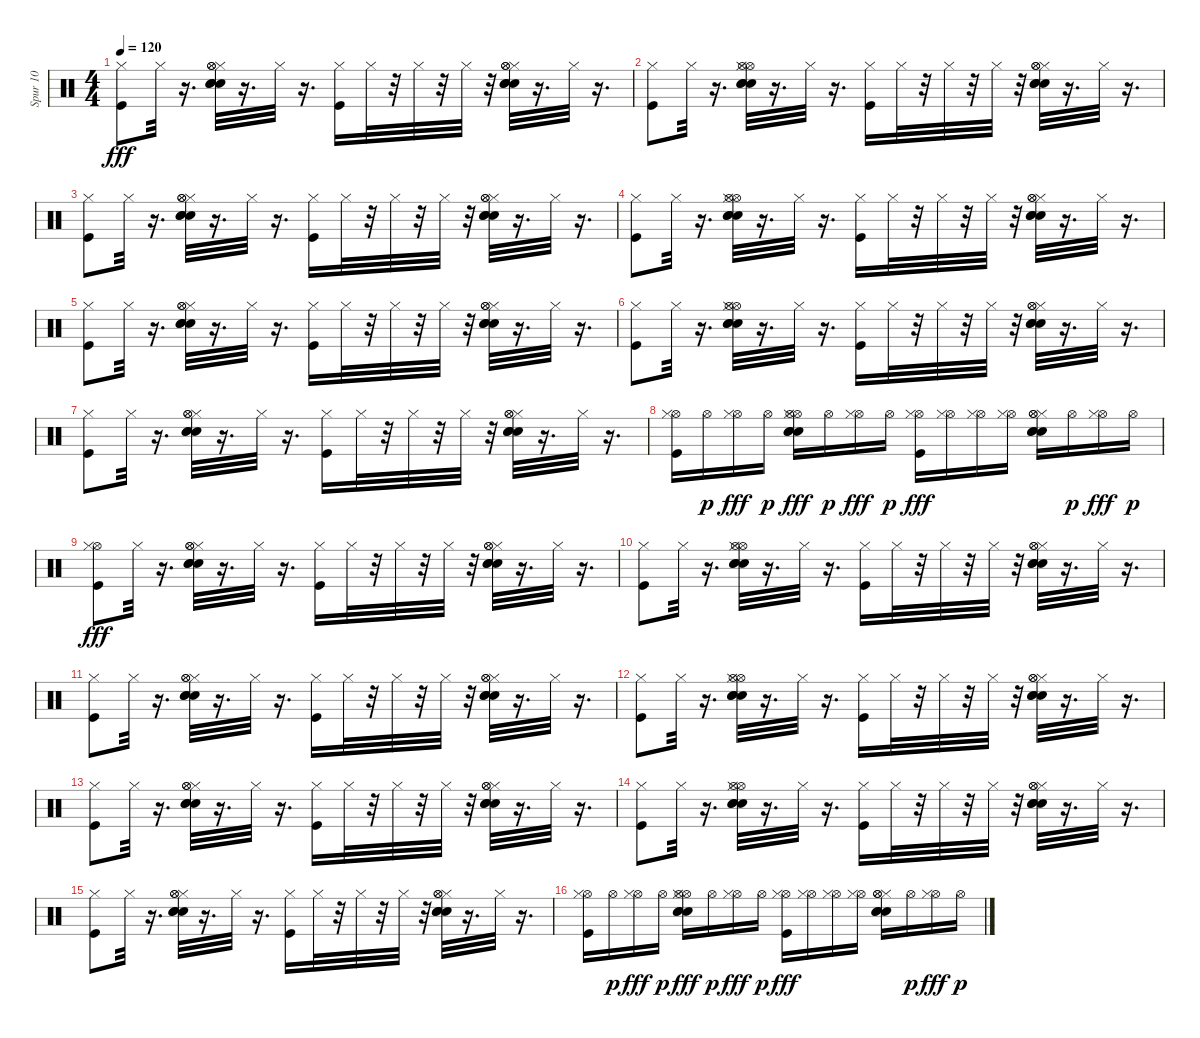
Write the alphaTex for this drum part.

\track ("Spur 10" "Spur 10") {instrument percussion}
\staff {score}
\articulation defaults
\ts (4 4)
\tempo 120
\clef neutral
\ks c
("Kick (hit)" "Hi-Hat (closed)").8{dy fff} "Hi-Hat (closed)".32 r.16{d} ("Snare (hit) 2" "Snare (hit) 2" "Hi-Hat (closed)" "Snare (hit) 2" "Hi-Hat (open)" "Hi-Hat (open)").32 r.16{d} "Hi-Hat (closed)".32 r.16{d} ("Hi-Hat (closed)" "Kick (hit)").16 "Hi-Hat (closed)".32 r.32 "Hi-Hat (closed)".32 r.32 "Hi-Hat (closed)".32 r.32 ("Hi-Hat (closed)" "Snare (hit) 2" "Hi-Hat (open)" "Hi-Hat (open)" "Snare (hit) 2" "Snare (hit) 2").32 r.16{d} "Hi-Hat (closed)".32 r.16{d} |
("Hi-Hat (closed)" "Kick (hit)").8 "Hi-Hat (closed)".32 r.16{d} ("Hi-Hat (open)" "Hi-Hat (closed)" "Snare (hit) 2" "Hi-Hat (open)" "Snare (hit) 2" "Snare (hit) 2").32 r.16{d} "Hi-Hat (closed)".32 r.16{d} ("Kick (hit)" "Hi-Hat (closed)").16 "Hi-Hat (closed)".32 r.32 "Hi-Hat (closed)".32 r.32 "Hi-Hat (closed)".32 r.32 ("Snare (hit) 2" "Hi-Hat (closed)" "Hi-Hat (open)" "Snare (hit) 2" "Hi-Hat (open)" "Snare (hit) 2").32 r.16{d} "Hi-Hat (closed)".32 r.16{d} |
("Kick (hit)" "Hi-Hat (closed)").8 "Hi-Hat (closed)".32 r.16{d} ("Snare (hit) 2" "Snare (hit) 2" "Hi-Hat (closed)" "Snare (hit) 2" "Hi-Hat (open)" "Hi-Hat (open)").32 r.16{d} "Hi-Hat (closed)".32 r.16{d} ("Hi-Hat (closed)" "Kick (hit)").16 "Hi-Hat (closed)".32 r.32 "Hi-Hat (closed)".32 r.32 "Hi-Hat (closed)".32 r.32 ("Hi-Hat (closed)" "Snare (hit) 2" "Hi-Hat (open)" "Hi-Hat (open)" "Snare (hit) 2" "Snare (hit) 2").32 r.16{d} "Hi-Hat (closed)".32 r.16{d} |
("Hi-Hat (closed)" "Kick (hit)").8 "Hi-Hat (closed)".32 r.16{d} ("Hi-Hat (open)" "Hi-Hat (closed)" "Snare (hit) 2" "Hi-Hat (open)" "Snare (hit) 2" "Snare (hit) 2").32 r.16{d} "Hi-Hat (closed)".32 r.16{d} ("Kick (hit)" "Hi-Hat (closed)").16 "Hi-Hat (closed)".32 r.32 "Hi-Hat (closed)".32 r.32 "Hi-Hat (closed)".32 r.32 ("Snare (hit) 2" "Hi-Hat (closed)" "Hi-Hat (open)" "Snare (hit) 2" "Hi-Hat (open)" "Snare (hit) 2").32 r.16{d} "Hi-Hat (closed)".32 r.16{d} |
("Kick (hit)" "Hi-Hat (closed)").8 "Hi-Hat (closed)".32 r.16{d} ("Snare (hit) 2" "Snare (hit) 2" "Hi-Hat (closed)" "Snare (hit) 2" "Hi-Hat (open)" "Hi-Hat (open)").32 r.16{d} "Hi-Hat (closed)".32 r.16{d} ("Hi-Hat (closed)" "Kick (hit)").16 "Hi-Hat (closed)".32 r.32 "Hi-Hat (closed)".32 r.32 "Hi-Hat (closed)".32 r.32 ("Hi-Hat (closed)" "Snare (hit) 2" "Hi-Hat (open)" "Hi-Hat (open)" "Snare (hit) 2" "Snare (hit) 2").32 r.16{d} "Hi-Hat (closed)".32 r.16{d} |
("Hi-Hat (closed)" "Kick (hit)").8 "Hi-Hat (closed)".32 r.16{d} ("Hi-Hat (open)" "Hi-Hat (closed)" "Snare (hit) 2" "Hi-Hat (open)" "Snare (hit) 2" "Snare (hit) 2").32 r.16{d} "Hi-Hat (closed)".32 r.16{d} ("Kick (hit)" "Hi-Hat (closed)").16 "Hi-Hat (closed)".32 r.32 "Hi-Hat (closed)".32 r.32 "Hi-Hat (closed)".32 r.32 ("Snare (hit) 2" "Hi-Hat (closed)" "Hi-Hat (open)" "Snare (hit) 2" "Hi-Hat (open)" "Snare (hit) 2").32 r.16{d} "Hi-Hat (closed)".32 r.16{d} |
("Kick (hit)" "Hi-Hat (closed)").8 "Hi-Hat (closed)".32 r.16{d} ("Snare (hit) 2" "Snare (hit) 2" "Hi-Hat (closed)" "Snare (hit) 2" "Hi-Hat (open)" "Hi-Hat (open)").32 r.16{d} "Hi-Hat (closed)".32 r.16{d} ("Hi-Hat (closed)" "Kick (hit)").16 "Hi-Hat (closed)".32 r.32 "Hi-Hat (closed)".32 r.32 "Hi-Hat (closed)".32 r.32 ("Hi-Hat (closed)" "Snare (hit) 2" "Hi-Hat (open)" "Hi-Hat (open)" "Snare (hit) 2" "Snare (hit) 2").32 r.16{d} "Hi-Hat (closed)".32 r.16{d} |
("Hi-Hat (open)" "Hi-Hat (closed)" "Kick (hit)").16 "Hi-Hat (open)".16{dy p} ("Hi-Hat (open)" "Hi-Hat (closed)").16{dy fff} "Hi-Hat (open)".16{dy p} ("Hi-Hat (open)" "Hi-Hat (closed)" "Snare (hit) 2" "Hi-Hat (open)" "Snare (hit) 2" "Snare (hit) 2").16{dy fff} "Hi-Hat (open)".16{dy p} ("Hi-Hat (open)" "Hi-Hat (closed)").16{dy fff} "Hi-Hat (open)".16{dy p} ("Hi-Hat (open)" "Kick (hit)" "Hi-Hat (closed)").16{dy fff} ("Hi-Hat (open)" "Hi-Hat (closed)").16 ("Hi-Hat (open)" "Hi-Hat (closed)").16 ("Hi-Hat (open)" "Hi-Hat (closed)").16 ("Snare (hit) 2" "Hi-Hat (closed)" "Hi-Hat (open)" "Snare (hit) 2" "Hi-Hat (open)" "Snare (hit) 2").16 "Hi-Hat (open)".16{dy p} ("Hi-Hat (open)" "Hi-Hat (closed)").16{dy fff} "Hi-Hat (open)".16{dy p} |
("Hi-Hat (open)" "Kick (hit)" "Hi-Hat (closed)").8{dy fff} "Hi-Hat (closed)".32 r.16{d} ("Snare (hit) 2" "Snare (hit) 2" "Hi-Hat (closed)" "Snare (hit) 2" "Hi-Hat (open)" "Hi-Hat (open)").32 r.16{d} "Hi-Hat (closed)".32 r.16{d} ("Hi-Hat (closed)" "Kick (hit)").16 "Hi-Hat (closed)".32 r.32 "Hi-Hat (closed)".32 r.32 "Hi-Hat (closed)".32 r.32 ("Hi-Hat (closed)" "Snare (hit) 2" "Hi-Hat (open)" "Hi-Hat (open)" "Snare (hit) 2" "Snare (hit) 2").32 r.16{d} "Hi-Hat (closed)".32 r.16{d} |
("Hi-Hat (closed)" "Kick (hit)").8 "Hi-Hat (closed)".32 r.16{d} ("Hi-Hat (open)" "Hi-Hat (closed)" "Snare (hit) 2" "Hi-Hat (open)" "Snare (hit) 2" "Snare (hit) 2").32 r.16{d} "Hi-Hat (closed)".32 r.16{d} ("Kick (hit)" "Hi-Hat (closed)").16 "Hi-Hat (closed)".32 r.32 "Hi-Hat (closed)".32 r.32 "Hi-Hat (closed)".32 r.32 ("Snare (hit) 2" "Hi-Hat (closed)" "Hi-Hat (open)" "Snare (hit) 2" "Hi-Hat (open)" "Snare (hit) 2").32 r.16{d} "Hi-Hat (closed)".32 r.16{d} |
("Kick (hit)" "Hi-Hat (closed)").8 "Hi-Hat (closed)".32 r.16{d} ("Snare (hit) 2" "Snare (hit) 2" "Hi-Hat (closed)" "Snare (hit) 2" "Hi-Hat (open)" "Hi-Hat (open)").32 r.16{d} "Hi-Hat (closed)".32 r.16{d} ("Hi-Hat (closed)" "Kick (hit)").16 "Hi-Hat (closed)".32 r.32 "Hi-Hat (closed)".32 r.32 "Hi-Hat (closed)".32 r.32 ("Hi-Hat (closed)" "Snare (hit) 2" "Hi-Hat (open)" "Hi-Hat (open)" "Snare (hit) 2" "Snare (hit) 2").32 r.16{d} "Hi-Hat (closed)".32 r.16{d} |
("Hi-Hat (closed)" "Kick (hit)").8 "Hi-Hat (closed)".32 r.16{d} ("Hi-Hat (open)" "Hi-Hat (closed)" "Snare (hit) 2" "Hi-Hat (open)" "Snare (hit) 2" "Snare (hit) 2").32 r.16{d} "Hi-Hat (closed)".32 r.16{d} ("Kick (hit)" "Hi-Hat (closed)").16 "Hi-Hat (closed)".32 r.32 "Hi-Hat (closed)".32 r.32 "Hi-Hat (closed)".32 r.32 ("Snare (hit) 2" "Hi-Hat (closed)" "Hi-Hat (open)" "Snare (hit) 2" "Hi-Hat (open)" "Snare (hit) 2").32 r.16{d} "Hi-Hat (closed)".32 r.16{d} |
("Kick (hit)" "Hi-Hat (closed)").8 "Hi-Hat (closed)".32 r.16{d} ("Snare (hit) 2" "Snare (hit) 2" "Hi-Hat (closed)" "Snare (hit) 2" "Hi-Hat (open)" "Hi-Hat (open)").32 r.16{d} "Hi-Hat (closed)".32 r.16{d} ("Hi-Hat (closed)" "Kick (hit)").16 "Hi-Hat (closed)".32 r.32 "Hi-Hat (closed)".32 r.32 "Hi-Hat (closed)".32 r.32 ("Hi-Hat (closed)" "Snare (hit) 2" "Hi-Hat (open)" "Hi-Hat (open)" "Snare (hit) 2" "Snare (hit) 2").32 r.16{d} "Hi-Hat (closed)".32 r.16{d} |
("Hi-Hat (closed)" "Kick (hit)").8 "Hi-Hat (closed)".32 r.16{d} ("Hi-Hat (open)" "Hi-Hat (closed)" "Snare (hit) 2" "Hi-Hat (open)" "Snare (hit) 2" "Snare (hit) 2").32 r.16{d} "Hi-Hat (closed)".32 r.16{d} ("Kick (hit)" "Hi-Hat (closed)").16 "Hi-Hat (closed)".32 r.32 "Hi-Hat (closed)".32 r.32 "Hi-Hat (closed)".32 r.32 ("Snare (hit) 2" "Hi-Hat (closed)" "Hi-Hat (open)" "Snare (hit) 2" "Hi-Hat (open)" "Snare (hit) 2").32 r.16{d} "Hi-Hat (closed)".32 r.16{d} |
("Kick (hit)" "Hi-Hat (closed)").8 "Hi-Hat (closed)".32 r.16{d} ("Snare (hit) 2" "Snare (hit) 2" "Hi-Hat (closed)" "Snare (hit) 2" "Hi-Hat (open)" "Hi-Hat (open)").32 r.16{d} "Hi-Hat (closed)".32 r.16{d} ("Hi-Hat (closed)" "Kick (hit)").16 "Hi-Hat (closed)".32 r.32 "Hi-Hat (closed)".32 r.32 "Hi-Hat (closed)".32 r.32 ("Hi-Hat (closed)" "Snare (hit) 2" "Hi-Hat (open)" "Hi-Hat (open)" "Snare (hit) 2" "Snare (hit) 2").32 r.16{d} "Hi-Hat (closed)".32 r.16{d} |
("Hi-Hat (open)" "Hi-Hat (closed)" "Kick (hit)").16 "Hi-Hat (open)".16{dy p} ("Hi-Hat (open)" "Hi-Hat (closed)").16{dy fff} "Hi-Hat (open)".16{dy p} ("Hi-Hat (open)" "Hi-Hat (closed)" "Snare (hit) 2" "Hi-Hat (open)" "Snare (hit) 2" "Snare (hit) 2").16{dy fff} "Hi-Hat (open)".16{dy p} ("Hi-Hat (open)" "Hi-Hat (closed)").16{dy fff} "Hi-Hat (open)".16{dy p} ("Hi-Hat (open)" "Kick (hit)" "Hi-Hat (closed)").16{dy fff} ("Hi-Hat (open)" "Hi-Hat (closed)").16 ("Hi-Hat (open)" "Hi-Hat (closed)").16 ("Hi-Hat (open)" "Hi-Hat (closed)").16 ("Snare (hit) 2" "Hi-Hat (closed)" "Hi-Hat (open)" "Snare (hit) 2" "Hi-Hat (open)" "Snare (hit) 2").16 "Hi-Hat (open)".16{dy p} ("Hi-Hat (open)" "Hi-Hat (closed)").16{dy fff} "Hi-Hat (open)".16{dy p}
